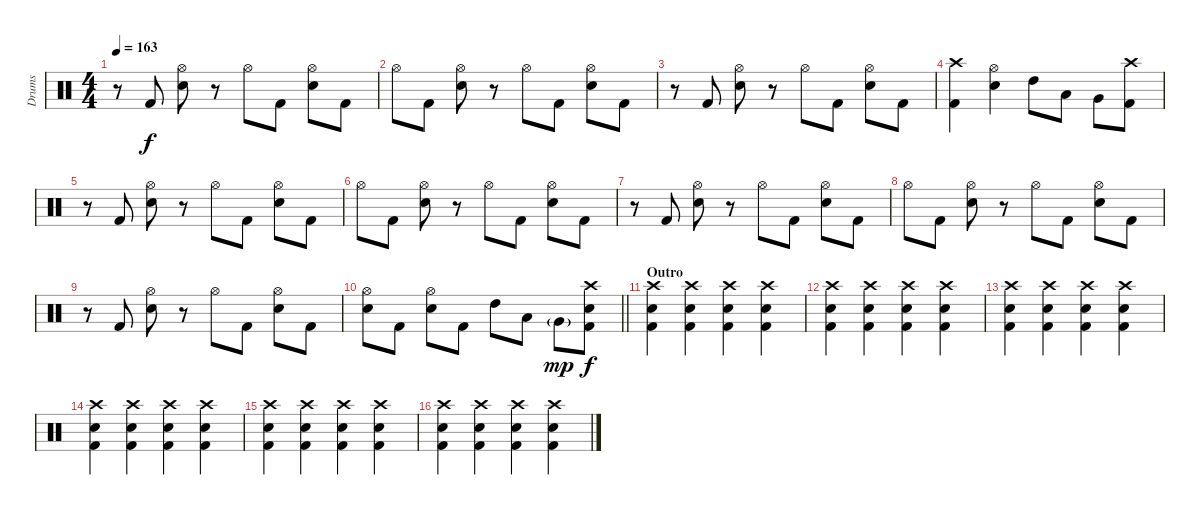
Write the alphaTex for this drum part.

\track ("Drums" "Drums") {instrument percussion}
\staff {score}
\articulation defaults
\ts (4 4)
\tempo 163
\clef neutral
\ks c
r.8{dy f} "Kick (hit) 2".8 ("Hi-Hat (open)" "Snare (hit) 2").8 r.8 "Hi-Hat (open)".8 "Kick (hit) 2".8 ("Hi-Hat (open)" "Snare (hit) 2").8 "Kick (hit) 2".8 |
"Hi-Hat (open)".8 "Kick (hit) 2".8 ("Hi-Hat (open)" "Snare (hit) 2").8 r.8 "Hi-Hat (open)".8 "Kick (hit) 2".8 ("Hi-Hat (open)" "Snare (hit) 2").8 "Kick (hit) 2".8 |
r.8 "Kick (hit) 2".8 ("Hi-Hat (open)" "Snare (hit) 2").8 r.8 "Hi-Hat (open)".8 "Kick (hit) 2".8 ("Hi-Hat (open)" "Snare (hit) 2").8 "Kick (hit) 2".8 |
("Crash high (hit)" "Kick (hit) 2").4 ("Hi-Hat (open)" "Snare (hit) 2").4 "High Tom (hit)".8 "Low Tom (hit)".8 "Very Low Tom (hit)".8 ("Crash high (hit)" "Kick (hit) 2").8 |
r.8 "Kick (hit) 2".8 ("Hi-Hat (open)" "Snare (hit) 2").8 r.8 "Hi-Hat (open)".8 "Kick (hit) 2".8 ("Hi-Hat (open)" "Snare (hit) 2").8 "Kick (hit) 2".8 |
"Hi-Hat (open)".8 "Kick (hit) 2".8 ("Hi-Hat (open)" "Snare (hit) 2").8 r.8 "Hi-Hat (open)".8 "Kick (hit) 2".8 ("Hi-Hat (open)" "Snare (hit) 2").8 "Kick (hit) 2".8 |
r.8 "Kick (hit) 2".8 ("Hi-Hat (open)" "Snare (hit) 2").8 r.8 "Hi-Hat (open)".8 "Kick (hit) 2".8 ("Hi-Hat (open)" "Snare (hit) 2").8 "Kick (hit) 2".8 |
"Hi-Hat (open)".8 "Kick (hit) 2".8 ("Hi-Hat (open)" "Snare (hit) 2").8 r.8 "Hi-Hat (open)".8 "Kick (hit) 2".8 ("Hi-Hat (open)" "Snare (hit) 2").8 "Kick (hit) 2".8 |
r.8 "Kick (hit) 2".8 ("Hi-Hat (open)" "Snare (hit) 2").8 r.8 "Hi-Hat (open)".8 "Kick (hit) 2".8 ("Hi-Hat (open)" "Snare (hit) 2").8 "Kick (hit) 2".8 |
\barLineRight lightlight
("Hi-Hat (open)" "Snare (hit) 2").8 "Kick (hit) 2".8 ("Hi-Hat (open)" "Snare (hit) 2").8 "Kick (hit) 2".8 "High Tom (hit)".8 "Low Tom (hit)".8 "Very Low Tom (hit)"{g}.8{dy mp} ("Crash high (hit)" "Snare (hit) 2" "Kick (hit) 2").8{dy f} |
\section ("" "Outro")
("Crash high (hit)" "Snare (hit) 2" "Kick (hit) 2").4 ("Crash high (hit)" "Snare (hit) 2" "Kick (hit) 2").4 ("Crash high (hit)" "Snare (hit) 2" "Kick (hit) 2").4 ("Crash high (hit)" "Snare (hit) 2" "Kick (hit) 2").4 |
("Crash high (hit)" "Snare (hit) 2" "Kick (hit) 2").4 ("Crash high (hit)" "Snare (hit) 2" "Kick (hit) 2").4 ("Crash high (hit)" "Snare (hit) 2" "Kick (hit) 2").4 ("Crash high (hit)" "Snare (hit) 2" "Kick (hit) 2").4 |
("Crash high (hit)" "Snare (hit) 2" "Kick (hit) 2").4 ("Crash high (hit)" "Snare (hit) 2" "Kick (hit) 2").4 ("Crash high (hit)" "Snare (hit) 2" "Kick (hit) 2").4 ("Crash high (hit)" "Snare (hit) 2" "Kick (hit) 2").4 |
("Crash high (hit)" "Snare (hit) 2" "Kick (hit) 2").4 ("Crash high (hit)" "Snare (hit) 2" "Kick (hit) 2").4 ("Crash high (hit)" "Snare (hit) 2" "Kick (hit) 2").4 ("Crash high (hit)" "Snare (hit) 2" "Kick (hit) 2").4 |
("Crash high (hit)" "Snare (hit) 2" "Kick (hit) 2").4 ("Crash high (hit)" "Snare (hit) 2" "Kick (hit) 2").4 ("Crash high (hit)" "Snare (hit) 2" "Kick (hit) 2").4 ("Crash high (hit)" "Snare (hit) 2" "Kick (hit) 2").4 |
("Crash high (hit)" "Snare (hit) 2" "Kick (hit) 2").4 ("Crash high (hit)" "Snare (hit) 2" "Kick (hit) 2").4 ("Crash high (hit)" "Snare (hit) 2" "Kick (hit) 2").4 ("Crash high (hit)" "Snare (hit) 2" "Kick (hit) 2").4
